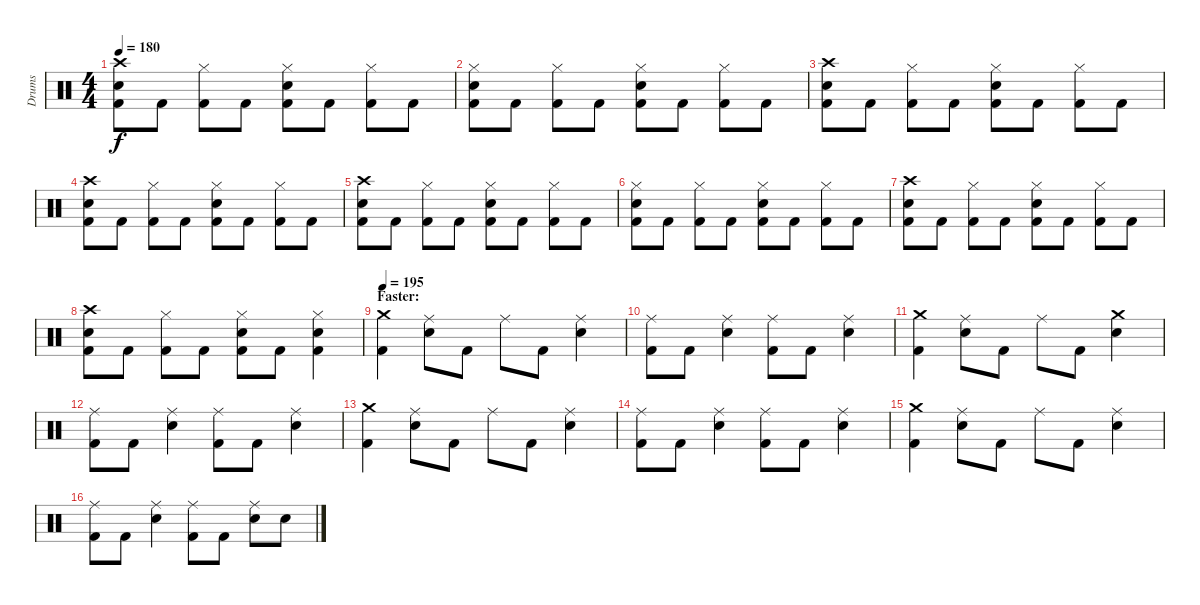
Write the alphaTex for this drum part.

\track ("Drums" "Drums") {instrument percussion}
\staff {score}
\articulation defaults
\ts (4 4)
\tempo 180
\clef neutral
\ks c
("Crash high (hit)" "Electric Snare (hit)" "Kick (hit) 2").8{dy f} "Kick (hit) 2".8 ("Hi-Hat (closed)" "Kick (hit) 2").8 "Kick (hit) 2".8 ("Hi-Hat (closed)" "Electric Snare (hit)" "Kick (hit) 2").8 "Kick (hit) 2".8 ("Hi-Hat (closed)" "Kick (hit) 2").8 "Kick (hit) 2".8 |
("Hi-Hat (closed)" "Electric Snare (hit)" "Kick (hit) 2").8 "Kick (hit) 2".8 ("Hi-Hat (closed)" "Kick (hit) 2").8 "Kick (hit) 2".8 ("Hi-Hat (closed)" "Electric Snare (hit)" "Kick (hit) 2").8 "Kick (hit) 2".8 ("Hi-Hat (closed)" "Kick (hit) 2").8 "Kick (hit) 2".8 |
("Crash high (hit)" "Electric Snare (hit)" "Kick (hit) 2").8 "Kick (hit) 2".8 ("Hi-Hat (closed)" "Kick (hit) 2").8 "Kick (hit) 2".8 ("Hi-Hat (closed)" "Electric Snare (hit)" "Kick (hit) 2").8 "Kick (hit) 2".8 ("Hi-Hat (closed)" "Kick (hit) 2").8 "Kick (hit) 2".8 |
("Crash high (hit)" "Electric Snare (hit)" "Kick (hit) 2").8 "Kick (hit) 2".8 ("Hi-Hat (closed)" "Kick (hit) 2").8 "Kick (hit) 2".8 ("Hi-Hat (closed)" "Electric Snare (hit)" "Kick (hit) 2").8 "Kick (hit) 2".8 ("Hi-Hat (closed)" "Kick (hit) 2").8 "Kick (hit) 2".8 |
("Crash high (hit)" "Electric Snare (hit)" "Kick (hit) 2").8 "Kick (hit) 2".8 ("Hi-Hat (closed)" "Kick (hit) 2").8 "Kick (hit) 2".8 ("Hi-Hat (closed)" "Electric Snare (hit)" "Kick (hit) 2").8 "Kick (hit) 2".8 ("Hi-Hat (closed)" "Kick (hit) 2").8 "Kick (hit) 2".8 |
("Hi-Hat (closed)" "Electric Snare (hit)" "Kick (hit) 2").8 "Kick (hit) 2".8 ("Hi-Hat (closed)" "Kick (hit) 2").8 "Kick (hit) 2".8 ("Hi-Hat (closed)" "Electric Snare (hit)" "Kick (hit) 2").8 "Kick (hit) 2".8 ("Hi-Hat (closed)" "Kick (hit) 2").8 "Kick (hit) 2".8 |
("Crash high (hit)" "Electric Snare (hit)" "Kick (hit) 2").8 "Kick (hit) 2".8 ("Hi-Hat (closed)" "Kick (hit) 2").8 "Kick (hit) 2".8 ("Hi-Hat (closed)" "Electric Snare (hit)" "Kick (hit) 2").8 "Kick (hit) 2".8 ("Hi-Hat (closed)" "Kick (hit) 2").8 "Kick (hit) 2".8 |
("Crash high (hit)" "Electric Snare (hit)" "Kick (hit) 2").8 "Kick (hit) 2".8 ("Hi-Hat (closed)" "Kick (hit) 2").8 "Kick (hit) 2".8 ("Hi-Hat (closed)" "Electric Snare (hit)" "Kick (hit) 2").8 "Kick (hit) 2".8 ("Hi-Hat (closed)" "Electric Snare (hit)" "Kick (hit) 2").4 |
\section ("" "Faster:")
\tempo 195
("Crash medium (hit)" "Kick (hit) 2").4 ("Ride (middle)" "Electric Snare (hit)").8 "Kick (hit) 2".8 "Ride (middle)".8 "Kick (hit) 2".8 ("Ride (middle)" "Electric Snare (hit)").4 |
("Ride (middle)" "Kick (hit) 2").8 "Kick (hit) 2".8 ("Ride (middle)" "Electric Snare (hit)").4 ("Ride (middle)" "Kick (hit) 2").8 "Kick (hit) 2".8 ("Ride (middle)" "Electric Snare (hit)").4 |
("Crash medium (hit)" "Kick (hit) 2").4 ("Ride (middle)" "Electric Snare (hit)").8 "Kick (hit) 2".8 "Ride (middle)".8 "Kick (hit) 2".8 ("Crash medium (hit)" "Electric Snare (hit)").4 |
("Ride (middle)" "Kick (hit) 2").8 "Kick (hit) 2".8 ("Ride (middle)" "Electric Snare (hit)").4 ("Ride (middle)" "Kick (hit) 2").8 "Kick (hit) 2".8 ("Ride (middle)" "Electric Snare (hit)").4 |
("Crash medium (hit)" "Kick (hit) 2").4 ("Ride (middle)" "Electric Snare (hit)").8 "Kick (hit) 2".8 "Ride (middle)".8 "Kick (hit) 2".8 ("Ride (middle)" "Electric Snare (hit)").4 |
("Ride (middle)" "Kick (hit) 2").8 "Kick (hit) 2".8 ("Ride (middle)" "Electric Snare (hit)").4 ("Ride (middle)" "Kick (hit) 2").8 "Kick (hit) 2".8 ("Ride (middle)" "Electric Snare (hit)").4 |
("Crash medium (hit)" "Kick (hit) 2").4 ("Ride (middle)" "Electric Snare (hit)").8 "Kick (hit) 2".8 "Ride (middle)".8 "Kick (hit) 2".8 ("Ride (middle)" "Electric Snare (hit)").4 |
("Ride (middle)" "Kick (hit) 2").8 "Kick (hit) 2".8 ("Ride (middle)" "Electric Snare (hit)").4 ("Ride (middle)" "Kick (hit) 2").8 "Kick (hit) 2".8 ("Ride (middle)" "Electric Snare (hit)").8 "Electric Snare (hit)".8
